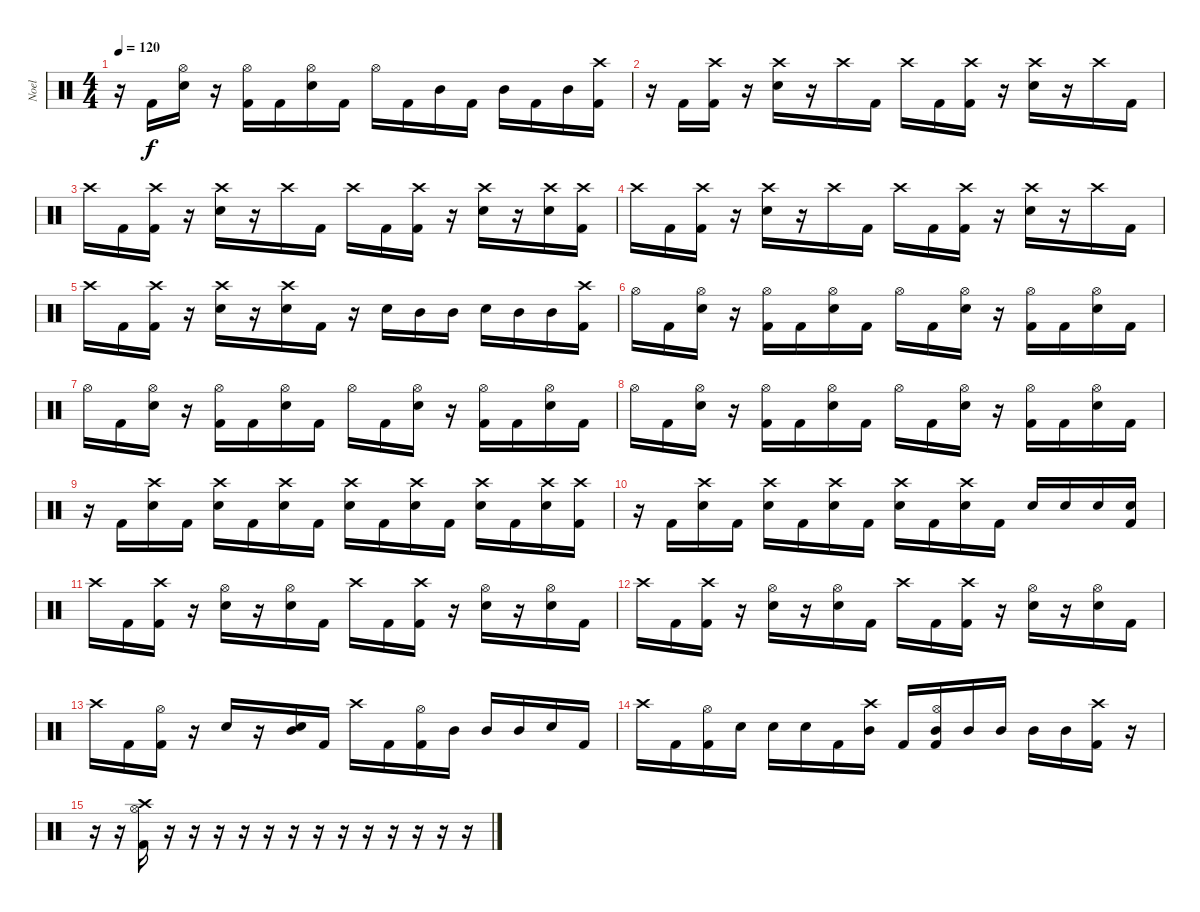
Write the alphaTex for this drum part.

\track ("Noel" "Noel") {instrument percussion}
\staff {score}
\articulation defaults
\ts (4 4)
\tempo 120
\clef neutral
\ks c
r.16{dy f} "Kick (hit) 2".16 ("Hi-Hat (open)" "Snare (hit) 2").16 r.16 ("Hi-Hat (open)" "Kick (hit) 2").16 "Kick (hit) 2".16 ("Hi-Hat (open)" "Snare (hit) 2").16 "Kick (hit) 2".16 "Hi-Hat (open)".16 "Kick (hit) 2".16 "Mid Tom (hit)".16 "Kick (hit) 2".16 "Mid Tom (hit)".16 "Kick (hit) 2".16 "Mid Tom (hit)".16 ("Crash high (hit)" "Kick (hit) 2").16 |
r.16 "Kick (hit) 2".16 ("Crash high (hit)" "Kick (hit) 2").16 r.16 ("Crash high (hit)" "Snare (hit) 2").16 r.16 "Crash high (hit)".16 "Kick (hit) 2".16 "Crash high (hit)".16 "Kick (hit) 2".16 ("Crash high (hit)" "Kick (hit) 2").16 r.16 ("Crash high (hit)" "Snare (hit) 2").16 r.16 "Crash high (hit)".16 "Kick (hit) 2".16 |
"Crash high (hit)".16 "Kick (hit) 2".16 ("Crash high (hit)" "Kick (hit) 2").16 r.16 ("Crash high (hit)" "Snare (hit) 2").16 r.16 "Crash high (hit)".16 "Kick (hit) 2".16 "Crash high (hit)".16 "Kick (hit) 2".16 ("Crash high (hit)" "Kick (hit) 2").16 r.16 ("Crash high (hit)" "Snare (hit) 2").16 r.16 ("Crash high (hit)" "Snare (hit) 2").16 ("Crash high (hit)" "Kick (hit) 2").16 |
"Crash high (hit)".16 "Kick (hit) 2".16 ("Crash high (hit)" "Kick (hit) 2").16 r.16 ("Crash high (hit)" "Snare (hit) 2").16 r.16 "Crash high (hit)".16 "Kick (hit) 2".16 "Crash high (hit)".16 "Kick (hit) 2".16 ("Crash high (hit)" "Kick (hit) 2").16 r.16 ("Crash high (hit)" "Snare (hit) 2").16 r.16 "Crash high (hit)".16 "Kick (hit) 2".16 |
"Crash high (hit)".16 "Kick (hit) 2".16 ("Crash high (hit)" "Kick (hit) 2").16 r.16 ("Crash high (hit)" "Snare (hit) 2").16 r.16 ("Crash high (hit)" "Snare (hit) 2").16 "Kick (hit) 2".16 r.16 "Snare (hit) 2".16 "Mid Tom (hit)".16 "Mid Tom (hit)".16 "Snare (hit) 2".16 "Mid Tom (hit)".16 "Mid Tom (hit)".16 ("Crash high (hit)" "Kick (hit) 2").16 |
"Hi-Hat (open)".16 "Kick (hit) 2".16 ("Hi-Hat (open)" "Snare (hit) 2").16 r.16 ("Hi-Hat (open)" "Kick (hit) 2").16 "Kick (hit) 2".16 ("Hi-Hat (open)" "Snare (hit) 2").16 "Kick (hit) 2".16 "Hi-Hat (open)".16 "Kick (hit) 2".16 ("Hi-Hat (open)" "Snare (hit) 2").16 r.16 ("Hi-Hat (open)" "Kick (hit) 2").16 "Kick (hit) 2".16 ("Hi-Hat (open)" "Snare (hit) 2").16 "Kick (hit) 2".16 |
"Hi-Hat (open)".16 "Kick (hit) 2".16 ("Hi-Hat (open)" "Snare (hit) 2").16 r.16 ("Hi-Hat (open)" "Kick (hit) 2").16 "Kick (hit) 2".16 ("Hi-Hat (open)" "Snare (hit) 2").16 "Kick (hit) 2".16 "Hi-Hat (open)".16 "Kick (hit) 2".16 ("Hi-Hat (open)" "Snare (hit) 2").16 r.16 ("Hi-Hat (open)" "Kick (hit) 2").16 "Kick (hit) 2".16 ("Hi-Hat (open)" "Snare (hit) 2").16 "Kick (hit) 2".16 |
"Hi-Hat (open)".16 "Kick (hit) 2".16 ("Hi-Hat (open)" "Snare (hit) 2").16 r.16 ("Hi-Hat (open)" "Kick (hit) 2").16 "Kick (hit) 2".16 ("Hi-Hat (open)" "Snare (hit) 2").16 "Kick (hit) 2".16 "Hi-Hat (open)".16 "Kick (hit) 2".16 ("Hi-Hat (open)" "Snare (hit) 2").16 r.16 ("Hi-Hat (open)" "Kick (hit) 2").16 "Kick (hit) 2".16 ("Hi-Hat (open)" "Snare (hit) 2").16 "Kick (hit) 2".16 |
r.16 "Kick (hit) 2".16 ("Crash high (hit)" "Snare (hit) 2").16 "Kick (hit) 2".16 ("Crash high (hit)" "Snare (hit) 2").16 "Kick (hit) 2".16 ("Crash high (hit)" "Snare (hit) 2").16 "Kick (hit) 2".16 ("Crash high (hit)" "Snare (hit) 2").16 "Kick (hit) 2".16 ("Crash high (hit)" "Snare (hit) 2").16 "Kick (hit) 2".16 ("Crash high (hit)" "Snare (hit) 2").16 "Kick (hit) 2".16 ("Crash high (hit)" "Snare (hit) 2").16 ("Crash high (hit)" "Kick (hit) 2").16 |
r.16 "Kick (hit) 2".16 ("Crash high (hit)" "Snare (hit) 2").16 "Kick (hit) 2".16 ("Crash high (hit)" "Snare (hit) 2").16 "Kick (hit) 2".16 ("Crash high (hit)" "Snare (hit) 2").16 "Kick (hit) 2".16 ("Crash high (hit)" "Snare (hit) 2").16 "Kick (hit) 2".16 ("Crash high (hit)" "Snare (hit) 2").16 "Kick (hit) 2".16 "Snare (hit) 2".16 "Snare (hit) 2".16 "Snare (hit) 2".16 ("Snare (hit) 2" "Kick (hit) 2").16 |
"Crash high (hit)".16 "Kick (hit) 2".16 ("Crash high (hit)" "Kick (hit) 2").16 r.16 ("Hi-Hat (open)" "Snare (hit) 2").16 r.16 ("Hi-Hat (open)" "Snare (hit) 2").16 "Kick (hit) 2".16 "Crash high (hit)".16 "Kick (hit) 2".16 ("Crash high (hit)" "Kick (hit) 2").16 r.16 ("Hi-Hat (open)" "Snare (hit) 2").16 r.16 ("Hi-Hat (open)" "Snare (hit) 2").16 "Kick (hit) 2".16 |
"Crash high (hit)".16 "Kick (hit) 2".16 ("Crash high (hit)" "Kick (hit) 2").16 r.16 ("Hi-Hat (open)" "Snare (hit) 2").16 r.16 ("Hi-Hat (open)" "Snare (hit) 2").16 "Kick (hit) 2".16 "Crash high (hit)".16 "Kick (hit) 2".16 ("Crash high (hit)" "Kick (hit) 2").16 r.16 ("Hi-Hat (open)" "Snare (hit) 2").16 r.16 ("Hi-Hat (open)" "Snare (hit) 2").16 "Kick (hit) 2".16 |
"Crash high (hit)".16 "Kick (hit) 2".16 ("Hi-Hat (open)" "Kick (hit) 2").16 r.16 "Snare (hit) 2".16 r.16 ("Snare (hit) 2" "Mid Tom (hit)").16 "Kick (hit) 2".16 "Crash high (hit)".16 "Kick (hit) 2".16 ("Hi-Hat (open)" "Kick (hit) 2").16 "Mid Tom (hit)".16 "Mid Tom (hit)".16 "Mid Tom (hit)".16 "Snare (hit) 2".16 "Kick (hit) 2".16 |
"Crash high (hit)".16 "Kick (hit) 2".16 ("Hi-Hat (open)" "Kick (hit) 2").16 "Snare (hit) 2".16 "Snare (hit) 2".16 "Snare (hit) 2".16 "Kick (hit) 2".16 ("Crash high (hit)" "Mid Tom (hit)").16 "Kick (hit) 2".16 ("Hi-Hat (open)" "Mid Tom (hit)" "Kick (hit) 2").16 "Mid Tom (hit)".16 "Mid Tom (hit)".16 "Mid Tom (hit)".16 "Mid Tom (hit)".16 ("Crash high (hit)" "Kick (hit) 2").16 r.16 |
r.16 r.16 ("Crash high (hit)" "Hi-Hat (open)" "Kick (hit) 2").16 r.16 r.16 r.16 r.16 r.16 r.16 r.16 r.16 r.16 r.16 r.16 r.16 r.16
